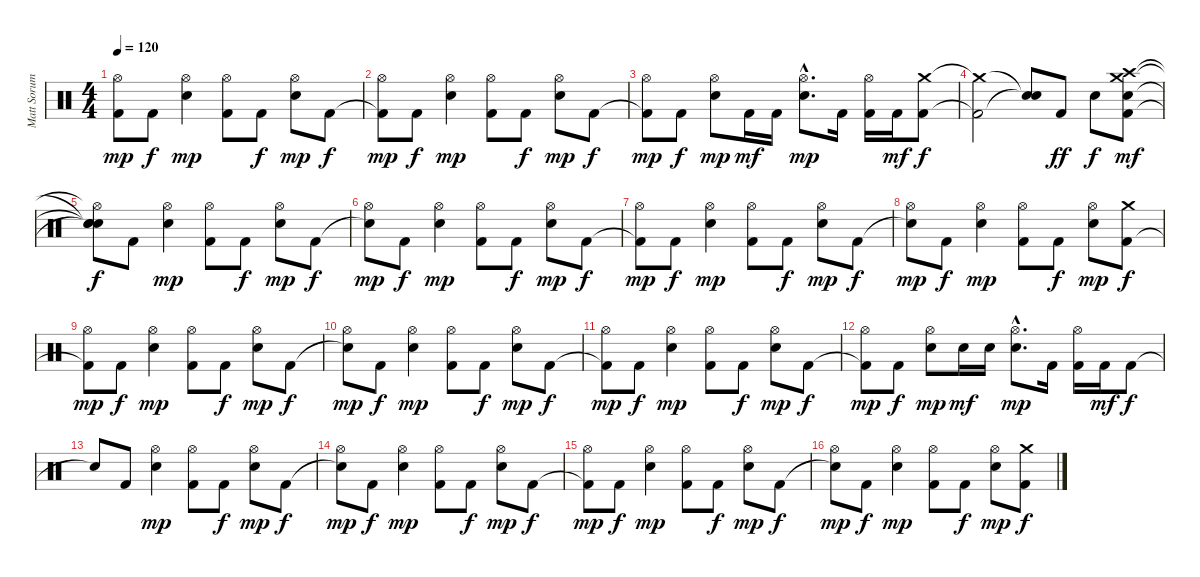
\track ("Matt Sorum" "Matt Sorum") {instrument percussion}
\staff {score}
\articulation defaults
\ts (4 4)
\tempo 120
\clef neutral
\ks c
("Kick (hit) 2"{t} "Hi-Hat (open)").8{dy mp} "Kick (hit) 2".8{dy f} ("Snare (hit) 2" "Hi-Hat (open)").4{dy mp} ("Kick (hit) 2" "Hi-Hat (open)").8 "Kick (hit) 2".8{dy f} ("Snare (hit) 2" "Hi-Hat (open)").8{dy mp} "Kick (hit) 2".8{dy f} |
("Kick (hit) 2"{t} "Hi-Hat (open)").8{dy mp} "Kick (hit) 2".8{dy f} ("Snare (hit) 2" "Hi-Hat (open)").4{dy mp} ("Kick (hit) 2" "Hi-Hat (open)").8 "Kick (hit) 2".8{dy f} ("Snare (hit) 2" "Hi-Hat (open)").8{dy mp} "Kick (hit) 2".8{dy f} |
("Kick (hit) 2"{t} "Hi-Hat (open)").8{dy mp} "Kick (hit) 2".8{dy f} ("Snare (hit) 2" "Hi-Hat (open)").8{dy mp} "Kick (hit) 2".16{dy mf} "Kick (hit) 2".16 ("Snare (hit) 2"{hac} "Hi-Hat (open)"{hac}).8{d dy mp} "Kick (hit) 2".16 ("Kick (hit) 2" "Hi-Hat (open)").16 "Kick (hit) 2".16{dy mf} ("Kick (hit) 2" "Crash medium (hit)").8{dy f} |
("Kick (hit) 2"{t} "Crash medium (hit)"{t}).2 ("Snare (hit)"{t} "Snare (hit)"{t}).8 "Kick (hit) 2".8{dy ff} "Snare (hit) 2".8{dy f} ("Kick (hit) 2" "Snare (hit) 2" "Crash medium (hit)" "Crash high (hit)").8{dy mf} |
("Snare (hit)"{t} "Snare (hit)"{t} "Hi-Hat (open)"{t} "Snare (hit)"{t}).8{dy f} "Kick (hit) 2".8 ("Snare (hit) 2" "Hi-Hat (open)").4{dy mp} ("Kick (hit) 2" "Hi-Hat (open)").8 "Kick (hit) 2".8{dy f} ("Snare (hit) 2" "Hi-Hat (open)").8{dy mp} "Kick (hit) 2".8{dy f} |
("Snare (hit)"{t} "Hi-Hat (open)").8{dy mp} "Kick (hit) 2".8{dy f} ("Snare (hit) 2" "Hi-Hat (open)").4{dy mp} ("Kick (hit) 2" "Hi-Hat (open)").8 "Kick (hit) 2".8{dy f} ("Snare (hit) 2" "Hi-Hat (open)").8{dy mp} "Kick (hit) 2".8{dy f} |
("Kick (hit) 2"{t} "Hi-Hat (open)").8{dy mp} "Kick (hit) 2".8{dy f} ("Snare (hit) 2" "Hi-Hat (open)").4{dy mp} ("Kick (hit) 2" "Hi-Hat (open)").8 "Kick (hit) 2".8{dy f} ("Snare (hit) 2" "Hi-Hat (open)").8{dy mp} "Kick (hit) 2".8{dy f} |
("Snare (hit)"{t} "Hi-Hat (open)").8{dy mp} "Kick (hit) 2".8{dy f} ("Snare (hit) 2" "Hi-Hat (open)").4{dy mp} ("Kick (hit) 2" "Hi-Hat (open)").8 "Kick (hit) 2".8{dy f} ("Snare (hit) 2" "Hi-Hat (open)").8{dy mp} ("Kick (hit) 2" "Crash medium (hit)").8{dy f} |
("Kick (hit) 2"{t} "Hi-Hat (open)").8{dy mp} "Kick (hit) 2".8{dy f} ("Snare (hit) 2" "Hi-Hat (open)").4{dy mp} ("Kick (hit) 2" "Hi-Hat (open)").8 "Kick (hit) 2".8{dy f} ("Snare (hit) 2" "Hi-Hat (open)").8{dy mp} "Kick (hit) 2".8{dy f} |
("Snare (hit)"{t} "Hi-Hat (open)").8{dy mp} "Kick (hit) 2".8{dy f} ("Snare (hit) 2" "Hi-Hat (open)").4{dy mp} ("Kick (hit) 2" "Hi-Hat (open)").8 "Kick (hit) 2".8{dy f} ("Snare (hit) 2" "Hi-Hat (open)").8{dy mp} "Kick (hit) 2".8{dy f} |
("Kick (hit) 2"{t} "Hi-Hat (open)").8{dy mp} "Kick (hit) 2".8{dy f} ("Snare (hit) 2" "Hi-Hat (open)").4{dy mp} ("Kick (hit) 2" "Hi-Hat (open)").8 "Kick (hit) 2".8{dy f} ("Snare (hit) 2" "Hi-Hat (open)").8{dy mp} "Kick (hit) 2".8{dy f} |
("Kick (hit) 2"{t} "Hi-Hat (open)").8{dy mp} "Kick (hit) 2".8{dy f} ("Snare (hit) 2" "Hi-Hat (open)").8{dy mp} "Snare (hit) 2".16{dy mf} "Snare (hit) 2".16 ("Snare (hit) 2"{hac} "Hi-Hat (open)"{hac}).8{d dy mp} "Kick (hit) 2".16 ("Kick (hit) 2" "Hi-Hat (open)").16 "Kick (hit) 2".16{dy mf} "Kick (hit) 2".8{dy f} |
"Snare (hit)"{t}.8 "Kick (hit) 2".8 ("Snare (hit) 2" "Hi-Hat (open)").4{dy mp} ("Kick (hit) 2" "Hi-Hat (open)").8 "Kick (hit) 2".8{dy f} ("Snare (hit) 2" "Hi-Hat (open)").8{dy mp} "Kick (hit) 2".8{dy f} |
("Snare (hit)"{t} "Hi-Hat (open)").8{dy mp} "Kick (hit) 2".8{dy f} ("Snare (hit) 2" "Hi-Hat (open)").4{dy mp} ("Kick (hit) 2" "Hi-Hat (open)").8 "Kick (hit) 2".8{dy f} ("Snare (hit) 2" "Hi-Hat (open)").8{dy mp} "Kick (hit) 2".8{dy f} |
("Kick (hit) 2"{t} "Hi-Hat (open)").8{dy mp} "Kick (hit) 2".8{dy f} ("Snare (hit) 2" "Hi-Hat (open)").4{dy mp} ("Kick (hit) 2" "Hi-Hat (open)").8 "Kick (hit) 2".8{dy f} ("Snare (hit) 2" "Hi-Hat (open)").8{dy mp} "Kick (hit) 2".8{dy f} |
("Snare (hit)"{t} "Hi-Hat (open)").8{dy mp} "Kick (hit) 2".8{dy f} ("Snare (hit) 2" "Hi-Hat (open)").4{dy mp} ("Kick (hit) 2" "Hi-Hat (open)").8 "Kick (hit) 2".8{dy f} ("Snare (hit) 2" "Hi-Hat (open)").8{dy mp} ("Kick (hit) 2" "Crash medium (hit)").8{dy f}
